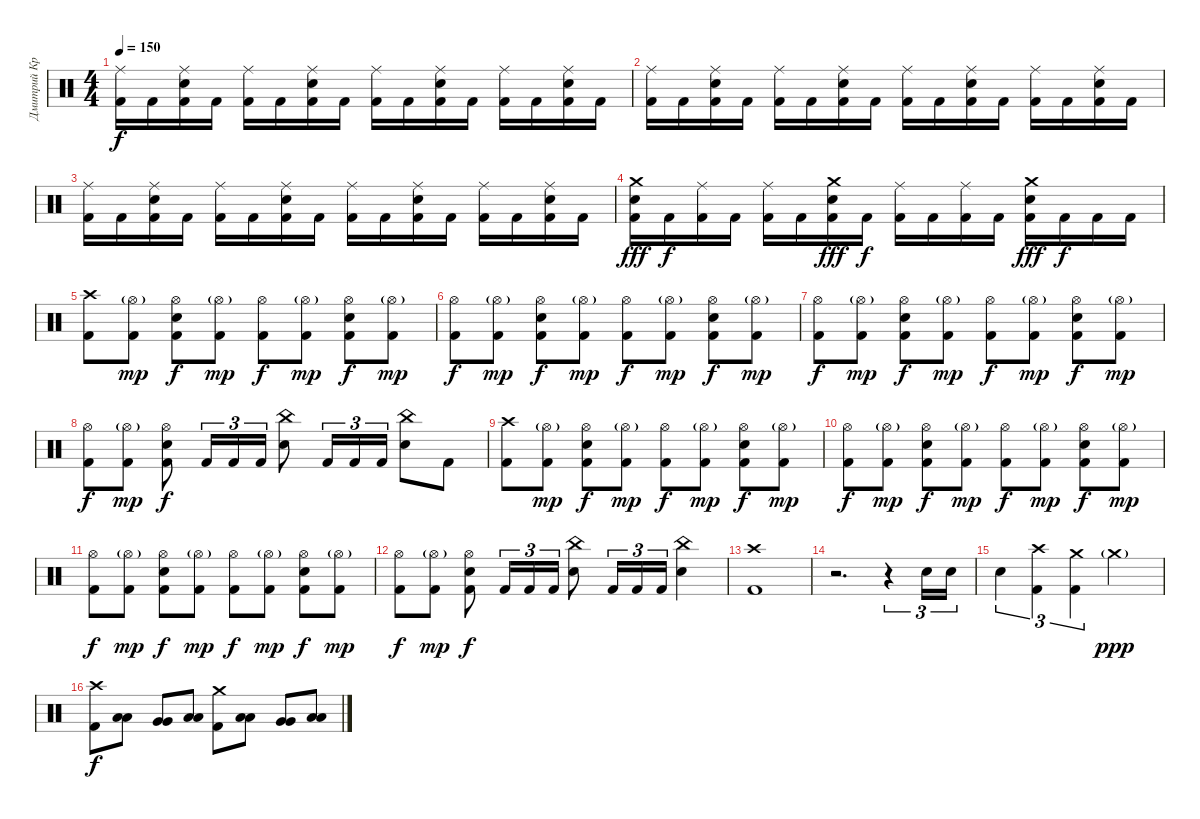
\track ("Дмитрий Кривенков" "Дмитрий Кр") {instrument percussion}
\staff {score}
\articulation defaults
\ts (4 4)
\tempo 150
\clef neutral
\ks c
("Ride (middle)" "Kick (hit) 2").16{dy f} "Kick (hit) 2".16 ("Ride (middle)" "Electric Snare (hit)" "Kick (hit) 2").16 "Kick (hit) 2".16 ("Ride (middle)" "Kick (hit) 2").16 "Kick (hit) 2".16 ("Ride (middle)" "Electric Snare (hit)" "Kick (hit) 2").16 "Kick (hit) 2".16 ("Ride (middle)" "Kick (hit) 2").16 "Kick (hit) 2".16 ("Ride (middle)" "Electric Snare (hit)" "Kick (hit) 2").16 "Kick (hit) 2".16 ("Ride (middle)" "Kick (hit) 2").16 "Kick (hit) 2".16 ("Ride (middle)" "Electric Snare (hit)" "Kick (hit) 2").16 "Kick (hit) 2".16 |
("Ride (middle)" "Kick (hit) 2").16 "Kick (hit) 2".16 ("Ride (middle)" "Electric Snare (hit)" "Kick (hit) 2").16 "Kick (hit) 2".16 ("Ride (middle)" "Kick (hit) 2").16 "Kick (hit) 2".16 ("Ride (middle)" "Electric Snare (hit)" "Kick (hit) 2").16 "Kick (hit) 2".16 ("Ride (middle)" "Kick (hit) 2").16 "Kick (hit) 2".16 ("Ride (middle)" "Electric Snare (hit)" "Kick (hit) 2").16 "Kick (hit) 2".16 ("Ride (middle)" "Kick (hit) 2").16 "Kick (hit) 2".16 ("Ride (middle)" "Electric Snare (hit)" "Kick (hit) 2").16 "Kick (hit) 2".16 |
("Ride (middle)" "Kick (hit) 2").16 "Kick (hit) 2".16 ("Ride (middle)" "Electric Snare (hit)" "Kick (hit) 2").16 "Kick (hit) 2".16 ("Ride (middle)" "Kick (hit) 2").16 "Kick (hit) 2".16 ("Ride (middle)" "Electric Snare (hit)" "Kick (hit) 2").16 "Kick (hit) 2".16 ("Ride (middle)" "Kick (hit) 2").16 "Kick (hit) 2".16 ("Ride (middle)" "Electric Snare (hit)" "Kick (hit) 2").16 "Kick (hit) 2".16 ("Ride (middle)" "Kick (hit) 2").16 "Kick (hit) 2".16 ("Ride (middle)" "Electric Snare (hit)" "Kick (hit) 2").16 "Kick (hit) 2".16 |
("Crash medium (hit)" "Electric Snare (hit)" "Kick (hit) 2").16{dy fff} "Kick (hit) 2".16{dy f} ("Ride (middle)" "Kick (hit) 2").16 "Kick (hit) 2".16 ("Ride (middle)" "Kick (hit) 2").16 "Kick (hit) 2".16 ("Crash medium (hit)" "Electric Snare (hit)" "Kick (hit) 2").16{dy fff} "Kick (hit) 2".16{dy f} ("Ride (middle)" "Kick (hit) 2").16 "Kick (hit) 2".16 ("Ride (middle)" "Kick (hit) 2").16 "Kick (hit) 2".16 ("Crash medium (hit)" "Electric Snare (hit)" "Kick (hit) 2").16{dy fff} "Kick (hit) 2".16{dy f} "Kick (hit) 2".16 "Kick (hit) 2".16 |
("Crash high (hit)" "Kick (hit) 2").8 ("Hi-Hat (open)"{g} "Kick (hit) 2").8{dy mp} ("Hi-Hat (open)" "Electric Snare (hit)" "Kick (hit) 2").8{dy f} ("Hi-Hat (open)"{g} "Kick (hit) 2").8{dy mp} ("Hi-Hat (open)" "Kick (hit) 2").8{dy f} ("Hi-Hat (open)"{g} "Kick (hit) 2").8{dy mp} ("Hi-Hat (open)" "Electric Snare (hit)" "Kick (hit) 2").8{dy f} ("Hi-Hat (open)"{g} "Kick (hit) 2").8{dy mp} |
("Hi-Hat (open)" "Kick (hit) 2").8{dy f} ("Hi-Hat (open)"{g} "Kick (hit) 2").8{dy mp} ("Hi-Hat (open)" "Electric Snare (hit)" "Kick (hit) 2").8{dy f} ("Hi-Hat (open)"{g} "Kick (hit) 2").8{dy mp} ("Hi-Hat (open)" "Kick (hit) 2").8{dy f} ("Hi-Hat (open)"{g} "Kick (hit) 2").8{dy mp} ("Hi-Hat (open)" "Electric Snare (hit)" "Kick (hit) 2").8{dy f} ("Hi-Hat (open)"{g} "Kick (hit) 2").8{dy mp} |
("Hi-Hat (open)" "Kick (hit) 2").8{dy f} ("Hi-Hat (open)"{g} "Kick (hit) 2").8{dy mp} ("Hi-Hat (open)" "Electric Snare (hit)" "Kick (hit) 2").8{dy f} ("Hi-Hat (open)"{g} "Kick (hit) 2").8{dy mp} ("Hi-Hat (open)" "Kick (hit) 2").8{dy f} ("Hi-Hat (open)"{g} "Kick (hit) 2").8{dy mp} ("Hi-Hat (open)" "Electric Snare (hit)" "Kick (hit) 2").8{dy f} ("Hi-Hat (open)"{g} "Kick (hit) 2").8{dy mp} |
("Hi-Hat (open)" "Kick (hit) 2").8{dy f} ("Hi-Hat (open)"{g} "Kick (hit) 2").8{dy mp} ("Hi-Hat (open)" "Electric Snare (hit)" "Kick (hit) 2").8{dy f} "Kick (hit) 2".16{tu (3 2)} "Kick (hit) 2".16{tu (3 2)} "Kick (hit) 2".16{tu (3 2)} ("China (hit)" "Electric Snare (hit)").8 "Kick (hit) 2".16{tu (3 2)} "Kick (hit) 2".16{tu (3 2)} "Kick (hit) 2".16{tu (3 2)} ("China (hit)" "Electric Snare (hit)").8 "Kick (hit) 2".8 |
("Crash high (hit)" "Kick (hit) 2").8 ("Hi-Hat (open)"{g} "Kick (hit) 2").8{dy mp} ("Hi-Hat (open)" "Electric Snare (hit)" "Kick (hit) 2").8{dy f} ("Hi-Hat (open)"{g} "Kick (hit) 2").8{dy mp} ("Hi-Hat (open)" "Kick (hit) 2").8{dy f} ("Hi-Hat (open)"{g} "Kick (hit) 2").8{dy mp} ("Hi-Hat (open)" "Electric Snare (hit)" "Kick (hit) 2").8{dy f} ("Hi-Hat (open)"{g} "Kick (hit) 2").8{dy mp} |
("Hi-Hat (open)" "Kick (hit) 2").8{dy f} ("Hi-Hat (open)"{g} "Kick (hit) 2").8{dy mp} ("Hi-Hat (open)" "Electric Snare (hit)" "Kick (hit) 2").8{dy f} ("Hi-Hat (open)"{g} "Kick (hit) 2").8{dy mp} ("Hi-Hat (open)" "Kick (hit) 2").8{dy f} ("Hi-Hat (open)"{g} "Kick (hit) 2").8{dy mp} ("Hi-Hat (open)" "Electric Snare (hit)" "Kick (hit) 2").8{dy f} ("Hi-Hat (open)"{g} "Kick (hit) 2").8{dy mp} |
("Hi-Hat (open)" "Kick (hit) 2").8{dy f} ("Hi-Hat (open)"{g} "Kick (hit) 2").8{dy mp} ("Hi-Hat (open)" "Electric Snare (hit)" "Kick (hit) 2").8{dy f} ("Hi-Hat (open)"{g} "Kick (hit) 2").8{dy mp} ("Hi-Hat (open)" "Kick (hit) 2").8{dy f} ("Hi-Hat (open)"{g} "Kick (hit) 2").8{dy mp} ("Hi-Hat (open)" "Electric Snare (hit)" "Kick (hit) 2").8{dy f} ("Hi-Hat (open)"{g} "Kick (hit) 2").8{dy mp} |
("Hi-Hat (open)" "Kick (hit) 2").8{dy f} ("Hi-Hat (open)"{g} "Kick (hit) 2").8{dy mp} ("Hi-Hat (open)" "Electric Snare (hit)" "Kick (hit) 2").8{dy f} "Kick (hit) 2".16{tu (3 2)} "Kick (hit) 2".16{tu (3 2)} "Kick (hit) 2".16{tu (3 2)} ("China (hit)" "Electric Snare (hit)").8 "Kick (hit) 2".16{tu (3 2)} "Kick (hit) 2".16{tu (3 2)} "Kick (hit) 2".16{tu (3 2)} ("China (hit)" "Electric Snare (hit)").4 |
("Crash high (hit)" "Kick (hit) 2").1 |
r.2{d} r.4{tu (3 2)} "Electric Snare (hit)".16{tu (3 2)} "Electric Snare (hit)".16{tu (3 2)} |
"Electric Snare (hit)".4{tu (3 2)} ("Crash high (hit)" "Kick (hit) 2").4{tu (3 2)} ("Crash medium (hit)" "Kick (hit) 2").4{tu (3 2)} "Crash medium (hit)"{g}.2{dy ppp} |
("Crash high (hit)" "Kick (hit) 2").8{dy f} ("Low Tom (hit)" "Low Tom (hit)").8 ("Very Low Tom (hit)" "Very Low Tom (hit)").8 ("Low Floor Tom (hit)" "Low Floor Tom (hit)").8 ("Crash medium (hit)" "Kick (hit) 2").8 ("Low Tom (hit)" "Low Tom (hit)").8 ("Very Low Tom (hit)" "Very Low Tom (hit)").8 ("Low Floor Tom (hit)" "Low Floor Tom (hit)").8
